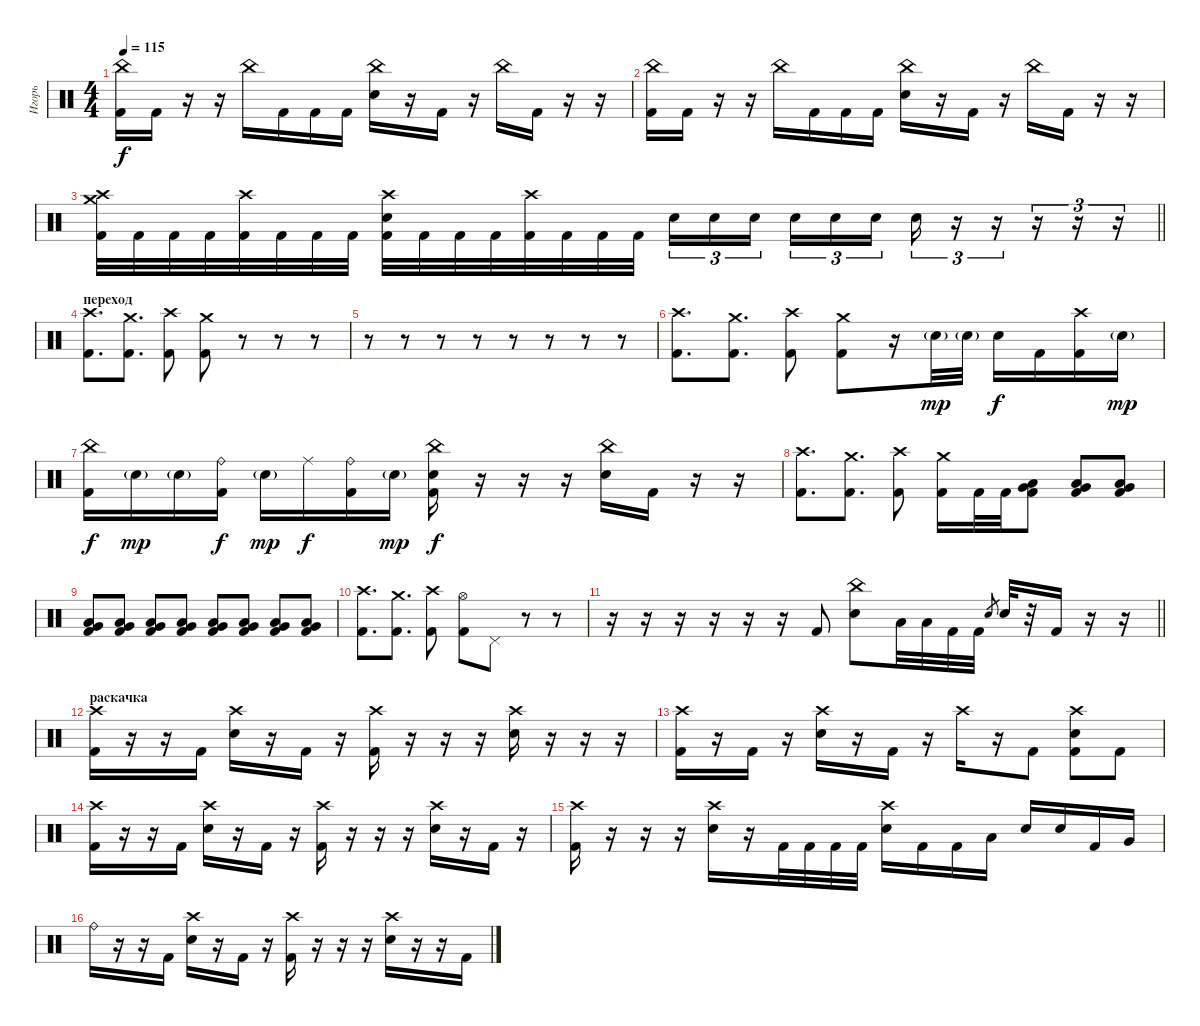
\track ("Игорь" "Игорь") {instrument percussion}
\staff {score}
\articulation defaults
\ts (4 4)
\tempo 115
\clef neutral
\ks c
("China (hit)" "Kick (hit) 2").16{dy f} "Kick (hit) 2".16 r.16 r.16 "China (hit)".16 "Kick (hit) 2".16 "Kick (hit) 2".16 "Kick (hit) 2".16 ("China (hit)" "Electric Snare (hit)").16 r.16 "Kick (hit) 2".16 r.16 "China (hit)".16 "Kick (hit) 2".16 r.16 r.16 |
("China (hit)" "Kick (hit) 2").16 "Kick (hit) 2".16 r.16 r.16 "China (hit)".16 "Kick (hit) 2".16 "Kick (hit) 2".16 "Kick (hit) 2".16 ("China (hit)" "Electric Snare (hit)").16 r.16 "Kick (hit) 2".16 r.16 "China (hit)".16 "Kick (hit) 2".16 r.16 r.16 |
\barLineRight lightlight
("Crash high (hit)" "Crash medium (hit)" "Kick (hit) 2").32 "Kick (hit) 2".32 "Kick (hit) 2".32 "Kick (hit) 2".32 ("Crash high (hit)" "Kick (hit) 2").32 "Kick (hit) 2".32 "Kick (hit) 2".32 "Kick (hit) 2".32 ("Crash high (hit)" "Electric Snare (hit)" "Kick (hit) 2").32 "Kick (hit) 2".32 "Kick (hit) 2".32 "Kick (hit) 2".32 ("Crash high (hit)" "Kick (hit) 2").32 "Kick (hit) 2".32 "Kick (hit) 2".32 "Kick (hit) 2".32 "Electric Snare (hit)".16{tu (3 2)} "Electric Snare (hit)".16{tu (3 2)} "Electric Snare (hit)".16{tu (3 2) beam splitsecondary} "Electric Snare (hit)".16{tu (3 2)} "Electric Snare (hit)".16{tu (3 2)} "Electric Snare (hit)".16{tu (3 2)} "Electric Snare (hit)".16{tu (3 2)} r.16{tu (3 2)} r.16{tu (3 2)} r.16{tu (3 2)} r.16{tu (3 2)} r.16{tu (3 2)} |
\section ("" "переход")
("Crash high (hit)" "Kick (hit) 2").8{d} ("Crash medium (hit)" "Kick (hit) 2").8{d} ("Crash high (hit)" "Kick (hit) 2").8 ("Crash medium (hit)" "Kick (hit) 2").8 r.8 r.8 r.8 |
r.8 r.8 r.8 r.8 r.8 r.8 r.8 r.8 |
("Crash high (hit)" "Kick (hit) 2").8{d} ("Crash medium (hit)" "Kick (hit) 2").8{d} ("Crash high (hit)" "Kick (hit) 2").8 ("Crash medium (hit)" "Kick (hit) 2").8 r.16 "Electric Snare (hit)"{g}.32{dy mp} "Electric Snare (hit)"{g}.32 "Electric Snare (hit)".16{dy f} "Kick (hit) 2".16 ("Crash high (hit)" "Kick (hit) 2").16 "Electric Snare (hit)"{g}.16{dy mp} |
("China (hit)" "Kick (hit) 2").16{dy f} "Electric Snare (hit)"{g}.16{dy mp} "Electric Snare (hit)"{g}.16 ("Ride (bell)" "Kick (hit) 2").16{dy f} "Electric Snare (hit)"{g}.16{dy mp} "Ride (middle)".16{dy f} ("Ride (bell)" "Kick (hit) 2").16 "Electric Snare (hit)"{g}.16{dy mp} ("China (hit)" "Electric Snare (hit)" "Kick (hit) 2").16{dy f} r.16 r.16 r.16 ("China (hit)" "Electric Snare (hit)").16 "Kick (hit) 2".16 r.16 r.16 |
("Crash high (hit)" "Kick (hit) 2").8{d} ("Crash medium (hit)" "Kick (hit) 2").8{d} ("Crash high (hit)" "Kick (hit) 2").8 ("Crash medium (hit)" "Kick (hit) 2").16 "Kick (hit) 2".32 "Kick (hit) 2".32 ("Very Low Tom (hit)" "Low Tom (hit)" "Kick (hit) 2").8 ("Very Low Tom (hit)" "Low Tom (hit)" "Kick (hit) 2").8 ("Very Low Tom (hit)" "Low Tom (hit)" "Kick (hit) 2").8 |
("Very Low Tom (hit)" "Low Tom (hit)" "Kick (hit) 2").8 ("Very Low Tom (hit)" "Low Tom (hit)" "Kick (hit) 2").8 ("Very Low Tom (hit)" "Low Tom (hit)" "Kick (hit) 2").8 ("Very Low Tom (hit)" "Low Tom (hit)" "Kick (hit) 2").8 ("Very Low Tom (hit)" "Low Tom (hit)" "Kick (hit) 2").8 ("Very Low Tom (hit)" "Low Tom (hit)" "Kick (hit) 2").8 ("Very Low Tom (hit)" "Low Tom (hit)" "Kick (hit) 2").8 ("Very Low Tom (hit)" "Low Tom (hit)" "Kick (hit) 2").8 |
("Crash high (hit)" "Kick (hit) 2").8{d} ("Crash medium (hit)" "Kick (hit) 2").8{d} ("Crash high (hit)" "Kick (hit) 2").8 ("Hi-Hat (open)" "Kick (hit) 2").8 "Pedal Hi-Hat (hit)".8 r.8 r.8 |
\barLineRight lightlight
r.16 r.16 r.16 r.16 r.16 r.16 "Kick (hit) 2".8 ("China (hit)" "Electric Snare (hit)").8 "Low Tom (hit)".32 "Low Tom (hit)".32 "Kick (hit) 2".32 "Kick (hit) 2".32 "Electric Snare (hit)".8{gr} "Electric Snare (hit)".32 r.32 "Kick (hit) 2".16 r.16 r.16 |
\section ("" "раскачка")
("Crash high (hit)" "Kick (hit) 2").16 r.16 r.16 "Kick (hit) 2".16 ("Crash high (hit)" "Electric Snare (hit)").16 r.16 "Kick (hit) 2".16 r.16 ("Crash high (hit)" "Kick (hit) 2").16 r.16 r.16 r.16 ("Crash high (hit)" "Electric Snare (hit)").16 r.16 r.16 r.16 |
("Crash high (hit)" "Kick (hit) 2").16 r.16 "Kick (hit) 2".16 r.16 ("Crash high (hit)" "Electric Snare (hit)").16 r.16 "Kick (hit) 2".16 r.16 "Crash high (hit)".16 r.16 "Kick (hit) 2".8 ("Crash high (hit)" "Electric Snare (hit)" "Kick (hit) 2").8 "Kick (hit) 2".8 |
("Crash high (hit)" "Kick (hit) 2").16 r.16 r.16 "Kick (hit) 2".16 ("Crash high (hit)" "Electric Snare (hit)").16 r.16 "Kick (hit) 2".16 r.16 ("Crash high (hit)" "Kick (hit) 2").16 r.16 r.16 r.16 ("Crash high (hit)" "Electric Snare (hit)").16 r.16 "Kick (hit) 2".16 r.16 |
("Crash high (hit)" "Kick (hit) 2").16 r.16 r.16 r.16 ("Crash high (hit)" "Electric Snare (hit)").16 r.16 "Kick (hit) 2".32 "Kick (hit) 2".32 "Kick (hit) 2".32 "Kick (hit) 2".32 ("Crash high (hit)" "Electric Snare (hit)").16 "Kick (hit) 2".16 "Kick (hit) 2".16 "Low Tom (hit)".16 "Electric Snare (hit)".16 "Electric Snare (hit)".16 "Kick (hit) 2".16 "Very Low Tom (hit)".16 |
"Ride (bell)".16 r.16 r.16 "Kick (hit) 2".16 ("Crash high (hit)" "Electric Snare (hit)").16 r.16 "Kick (hit) 2".16 r.16 ("Crash high (hit)" "Kick (hit) 2").16 r.16 r.16 r.16 ("Crash high (hit)" "Electric Snare (hit)").16 r.16 r.16 "Kick (hit) 2".16
